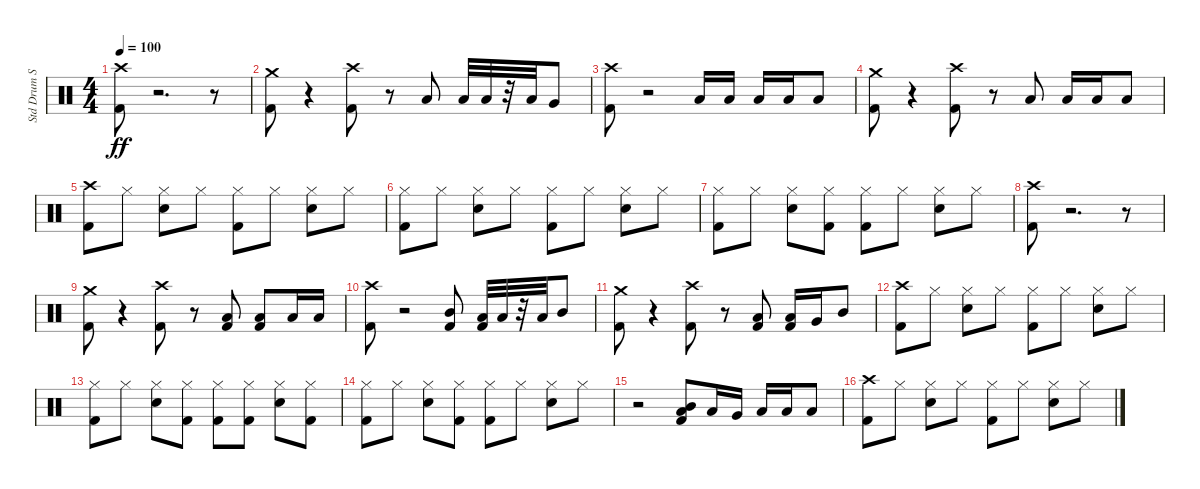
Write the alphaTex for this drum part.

\track ("Std Drum Set" "Std Drum S") {instrument percussion}
\staff {score}
\articulation defaults
\ts (4 4)
\tempo 100
\clef neutral
\ks c
("Kick (hit) 2" "Crash high (hit)").8{dy ff} r.2{d} r.8 |
("Kick (hit) 2" "Crash medium (hit)").8 r.4 ("Kick (hit) 2" "Crash high (hit)").8 r.8 "Low Tom (hit)".8 "Low Floor Tom (hit)".32 "Low Floor Tom (hit)".32 r.32 "Low Floor Tom (hit)".32 "Very Low Tom (hit)".8 |
("Crash high (hit)" "Kick (hit) 2").8 r.2 "Low Floor Tom (hit)".16 "Low Floor Tom (hit)".16 "Low Floor Tom (hit)".16 "Low Floor Tom (hit)".16 "Low Floor Tom (hit)".8 |
("Kick (hit) 2" "Crash medium (hit)").8 r.4 ("Kick (hit) 2" "Crash high (hit)").8 r.8 "Low Floor Tom (hit)".8 "Low Floor Tom (hit)".16 "Low Floor Tom (hit)".16 "Low Floor Tom (hit)".8 |
("Kick (hit) 2" "Crash high (hit)").8 "Hi-Hat (closed)".8 ("Hi-Hat (closed)" "Snare (hit) 2").8 "Hi-Hat (closed)".8 ("Hi-Hat (closed)" "Kick (hit) 2").8 "Hi-Hat (closed)".8 ("Hi-Hat (closed)" "Snare (hit) 2").8 "Hi-Hat (closed)".8 |
("Kick (hit) 2" "Hi-Hat (closed)").8 "Hi-Hat (closed)".8 ("Hi-Hat (closed)" "Snare (hit) 2").8 "Hi-Hat (closed)".8 ("Hi-Hat (closed)" "Kick (hit) 2").8 "Hi-Hat (closed)".8 ("Hi-Hat (closed)" "Snare (hit) 2").8 "Hi-Hat (closed)".8 |
("Hi-Hat (closed)" "Kick (hit) 2").8 "Hi-Hat (closed)".8 ("Snare (hit) 2" "Hi-Hat (closed)").8 ("Hi-Hat (closed)" "Kick (hit) 2").8 ("Hi-Hat (closed)" "Kick (hit) 2").8 "Hi-Hat (closed)".8 ("Hi-Hat (closed)" "Snare (hit) 2").8 "Hi-Hat (closed)".8 |
("Kick (hit) 2" "Crash high (hit)").8 r.2{d} r.8 |
("Crash medium (hit)" "Kick (hit) 2").8 r.4 ("Kick (hit) 2" "Crash high (hit)").8 r.8 ("Low Tom (hit)" "Kick (hit) 2").8 ("Kick (hit) 2" "Low Tom (hit)").8 "Low Floor Tom (hit)".16 "Low Floor Tom (hit)".16 |
("Crash high (hit)" "Kick (hit) 2").8 r.2 ("Mid Tom (hit)" "Kick (hit) 2").8 ("Low Tom (hit)" "Kick (hit) 2").32 "Low Tom (hit)".32 r.32 "Low Floor Tom (hit)".32 "Mid Tom (hit)".8 |
("Kick (hit) 2" "Crash medium (hit)").8 r.4 ("Crash high (hit)" "Kick (hit) 2").8 r.8 ("Low Floor Tom (hit)" "Kick (hit) 2").8 ("Kick (hit) 2" "Low Floor Tom (hit)").16 "Very Low Tom (hit)".16 "Mid Tom (hit)".8 |
("Kick (hit) 2" "Crash high (hit)").8 "Hi-Hat (closed)".8 ("Hi-Hat (closed)" "Snare (hit) 2").8 "Hi-Hat (closed)".8 ("Kick (hit) 2" "Hi-Hat (closed)").8 "Hi-Hat (closed)".8 ("Snare (hit) 2" "Hi-Hat (closed)").8 "Hi-Hat (closed)".8 |
("Kick (hit) 2" "Hi-Hat (closed)").8 "Hi-Hat (closed)".8 ("Hi-Hat (closed)" "Snare (hit) 2").8 ("Hi-Hat (closed)" "Kick (hit) 2").8 ("Kick (hit) 2" "Hi-Hat (closed)").8 ("Kick (hit) 2" "Hi-Hat (closed)").8 ("Hi-Hat (closed)" "Snare (hit) 2").8 ("Kick (hit) 2" "Hi-Hat (closed)").8 |
("Kick (hit) 2" "Hi-Hat (closed)").8 "Hi-Hat (closed)".8 ("Hi-Hat (closed)" "Snare (hit) 2").8 ("Kick (hit) 2" "Hi-Hat (closed)").8 ("Kick (hit) 2" "Hi-Hat (closed)").8 "Hi-Hat (closed)".8 ("Hi-Hat (closed)" "Snare (hit) 2").8 "Hi-Hat (closed)".8 |
r.2 ("Low Floor Tom (hit)" "Kick (hit) 2" "Mid Tom (hit)").8 "Low Tom (hit)".16 "Very Low Tom (hit)".16 "Low Floor Tom (hit)".16 "Low Floor Tom (hit)".16 "Low Floor Tom (hit)".8 |
("Crash high (hit)" "Kick (hit) 2").8 "Hi-Hat (closed)".8 ("Snare (hit) 2" "Hi-Hat (closed)").8 "Hi-Hat (closed)".8 ("Hi-Hat (closed)" "Kick (hit) 2").8 "Hi-Hat (closed)".8 ("Hi-Hat (closed)" "Snare (hit) 2").8 "Hi-Hat (closed)".8
